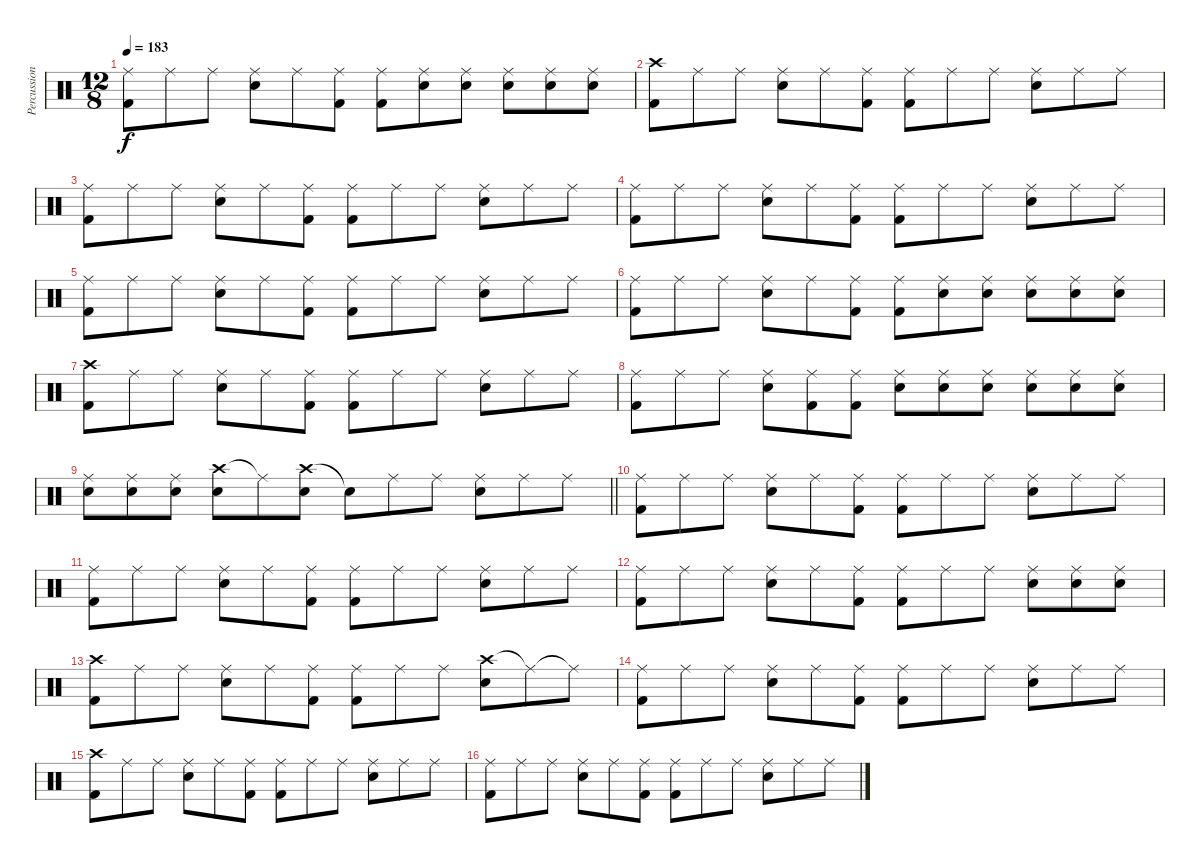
\track ("Percussion" "Percussion") {instrument percussion}
\staff {score}
\articulation defaults
\ts (12 8)
\tempo 183
\clef neutral
\ks c
("Ride (middle)" "Kick (hit) 2").8{dy f} "Ride (middle)".8 "Ride (middle)".8 ("Ride (middle)" "Snare (hit) 2").8 "Ride (middle)".8 ("Ride (middle)" "Kick (hit) 2").8 ("Ride (middle)" "Kick (hit) 2").8 ("Ride (middle)" "Snare (hit) 2").8 ("Ride (middle)" "Snare (hit) 2").8 ("Ride (middle)" "Snare (hit) 2").8 ("Ride (middle)" "Snare (hit) 2").8 ("Ride (middle)" "Snare (hit) 2").8 |
("Crash high (hit)" "Kick (hit) 2").8 "Ride (middle)".8 "Ride (middle)".8 ("Ride (middle)" "Snare (hit) 2").8 "Ride (middle)".8 ("Ride (middle)" "Kick (hit) 2").8 ("Ride (middle)" "Kick (hit) 2").8 "Ride (middle)".8 "Ride (middle)".8 ("Ride (middle)" "Snare (hit) 2").8 "Ride (middle)".8 "Ride (middle)".8 |
("Ride (middle)" "Kick (hit) 2").8 "Ride (middle)".8 "Ride (middle)".8 ("Ride (middle)" "Snare (hit) 2").8 "Ride (middle)".8 ("Ride (middle)" "Kick (hit) 2").8 ("Ride (middle)" "Kick (hit) 2").8 "Ride (middle)".8 "Ride (middle)".8 ("Ride (middle)" "Snare (hit) 2").8 "Ride (middle)".8 "Ride (middle)".8 |
("Ride (middle)" "Kick (hit) 2").8 "Ride (middle)".8 "Ride (middle)".8 ("Ride (middle)" "Snare (hit) 2").8 "Ride (middle)".8 ("Ride (middle)" "Kick (hit) 2").8 ("Ride (middle)" "Kick (hit) 2").8 "Ride (middle)".8 "Ride (middle)".8 ("Ride (middle)" "Snare (hit) 2").8 "Ride (middle)".8 "Ride (middle)".8 |
("Ride (middle)" "Kick (hit) 2").8 "Ride (middle)".8 "Ride (middle)".8 ("Ride (middle)" "Snare (hit) 2").8 "Ride (middle)".8 ("Ride (middle)" "Kick (hit) 2").8 ("Ride (middle)" "Kick (hit) 2").8 "Ride (middle)".8 "Ride (middle)".8 ("Ride (middle)" "Snare (hit) 2").8 "Ride (middle)".8 "Ride (middle)".8 |
("Ride (middle)" "Kick (hit) 2").8 "Ride (middle)".8 "Ride (middle)".8 ("Ride (middle)" "Snare (hit) 2").8 "Ride (middle)".8 ("Ride (middle)" "Kick (hit) 2").8 ("Ride (middle)" "Kick (hit) 2").8 ("Ride (middle)" "Snare (hit) 2").8 ("Ride (middle)" "Snare (hit) 2").8 ("Ride (middle)" "Snare (hit) 2").8 ("Ride (middle)" "Snare (hit) 2").8 ("Ride (middle)" "Snare (hit) 2").8 |
("Crash high (hit)" "Kick (hit) 2").8 "Ride (middle)".8 "Ride (middle)".8 ("Ride (middle)" "Snare (hit) 2").8 "Ride (middle)".8 ("Ride (middle)" "Kick (hit) 2").8 ("Ride (middle)" "Kick (hit) 2").8 "Ride (middle)".8 "Ride (middle)".8 ("Ride (middle)" "Snare (hit) 2").8 "Ride (middle)".8 "Ride (middle)".8 |
("Ride (middle)" "Kick (hit) 2").8 "Ride (middle)".8 "Ride (middle)".8 ("Ride (middle)" "Snare (hit) 2").8 ("Ride (middle)" "Kick (hit) 2").8 ("Ride (middle)" "Kick (hit) 2").8 ("Ride (middle)" "Snare (hit) 2").8 ("Ride (middle)" "Snare (hit) 2").8 ("Ride (middle)" "Snare (hit) 2").8 ("Ride (middle)" "Snare (hit) 2").8 ("Ride (middle)" "Snare (hit) 2").8 ("Ride (middle)" "Snare (hit) 2").8 |
\barLineRight lightlight
("Ride (middle)" "Snare (hit) 2").8 ("Ride (middle)" "Snare (hit) 2").8 ("Ride (middle)" "Snare (hit) 2").8 ("Crash high (hit)" "Snare (hit) 2").8 "Ride (middle)"{t}.8 ("Crash high (hit)" "Snare (hit) 2").8 "Snare (hit)"{t}.8 "Ride (middle)".8 "Ride (middle)".8 ("Ride (middle)" "Snare (hit) 2").8 "Ride (middle)".8 "Ride (middle)".8 |
("Ride (middle)" "Kick (hit) 2").8 "Ride (middle)".8 "Ride (middle)".8 ("Ride (middle)" "Snare (hit) 2").8 "Ride (middle)".8 ("Ride (middle)" "Kick (hit) 2").8 ("Ride (middle)" "Kick (hit) 2").8 "Ride (middle)".8 "Ride (middle)".8 ("Ride (middle)" "Snare (hit) 2").8 "Ride (middle)".8 "Ride (middle)".8 |
("Ride (middle)" "Kick (hit) 2").8 "Ride (middle)".8 "Ride (middle)".8 ("Ride (middle)" "Snare (hit) 2").8 "Ride (middle)".8 ("Ride (middle)" "Kick (hit) 2").8 ("Ride (middle)" "Kick (hit) 2").8 "Ride (middle)".8 "Ride (middle)".8 ("Ride (middle)" "Snare (hit) 2").8 "Ride (middle)".8 "Ride (middle)".8 |
("Ride (middle)" "Kick (hit) 2").8 "Ride (middle)".8 "Ride (middle)".8 ("Ride (middle)" "Snare (hit) 2").8 "Ride (middle)".8 ("Ride (middle)" "Kick (hit) 2").8 ("Ride (middle)" "Kick (hit) 2").8 "Ride (middle)".8 "Ride (middle)".8 ("Ride (middle)" "Snare (hit) 2").8 ("Ride (middle)" "Snare (hit) 2").8 ("Ride (middle)" "Snare (hit) 2").8 |
("Crash high (hit)" "Kick (hit) 2").8 "Ride (middle)".8 "Ride (middle)".8 ("Ride (middle)" "Snare (hit) 2").8 "Ride (middle)".8 ("Ride (middle)" "Kick (hit) 2").8 ("Ride (middle)" "Kick (hit) 2").8 "Ride (middle)".8 "Ride (middle)".8 ("Crash high (hit)" "Snare (hit) 2").8 "Ride (middle)"{t}.8 "Ride (middle)"{t}.8 |
("Ride (middle)" "Kick (hit) 2").8 "Ride (middle)".8 "Ride (middle)".8 ("Ride (middle)" "Snare (hit) 2").8 "Ride (middle)".8 ("Ride (middle)" "Kick (hit) 2").8 ("Ride (middle)" "Kick (hit) 2").8 "Ride (middle)".8 "Ride (middle)".8 ("Ride (middle)" "Snare (hit) 2").8 "Ride (middle)".8 "Ride (middle)".8 |
("Crash high (hit)" "Kick (hit) 2").8 "Ride (middle)".8 "Ride (middle)".8 ("Ride (middle)" "Snare (hit) 2").8 "Ride (middle)".8 ("Ride (middle)" "Kick (hit) 2").8 ("Ride (middle)" "Kick (hit) 2").8 "Ride (middle)".8 "Ride (middle)".8 ("Ride (middle)" "Snare (hit) 2").8 "Ride (middle)".8 "Ride (middle)".8 |
("Ride (middle)" "Kick (hit) 2").8 "Ride (middle)".8 "Ride (middle)".8 ("Ride (middle)" "Snare (hit) 2").8 "Ride (middle)".8 ("Ride (middle)" "Kick (hit) 2").8 ("Ride (middle)" "Kick (hit) 2").8 "Ride (middle)".8 "Ride (middle)".8 ("Ride (middle)" "Snare (hit) 2").8 "Ride (middle)".8 "Ride (middle)".8
